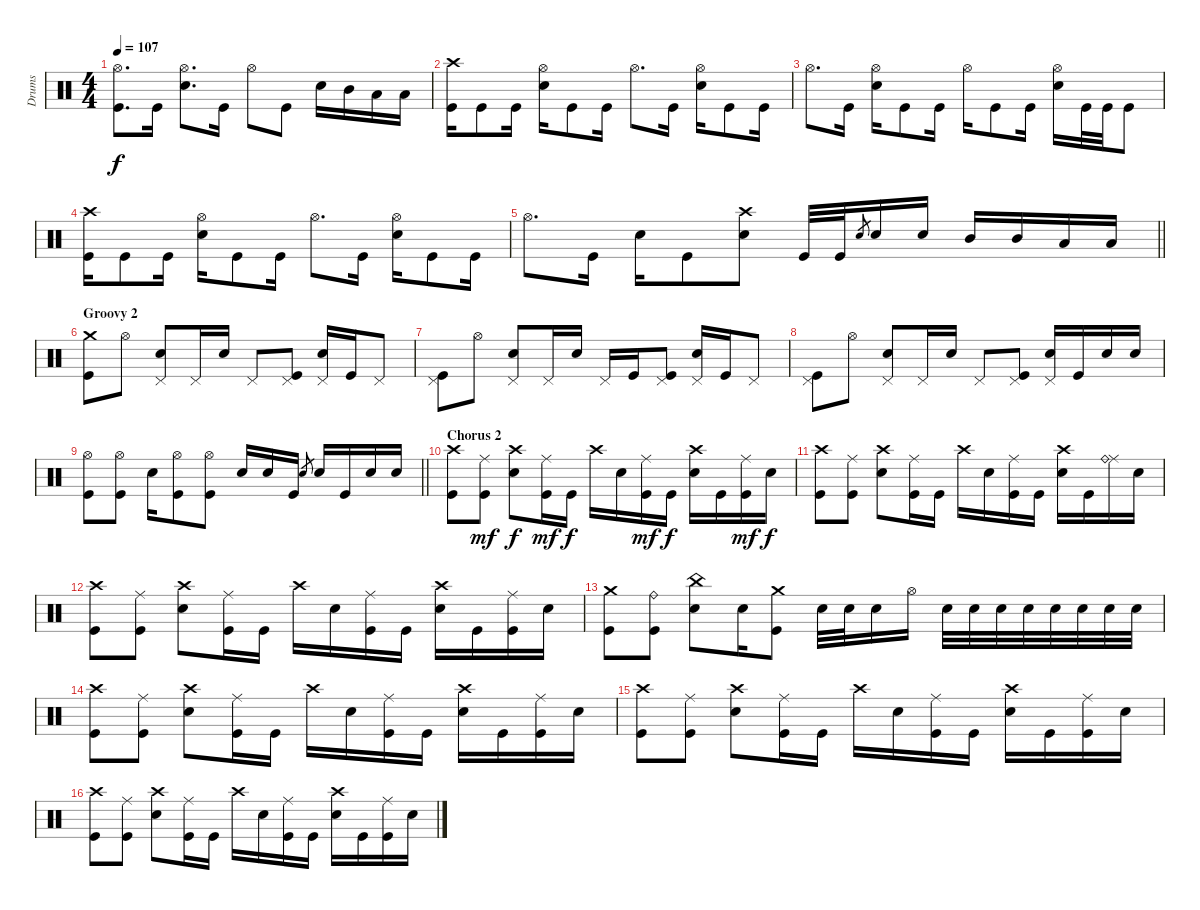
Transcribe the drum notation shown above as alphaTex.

\track ("Drums" "Drums") {instrument percussion}
\staff {score}
\articulation defaults
\ts (4 4)
\tempo 107
\clef neutral
\ks c
("Hi-Hat (open)" "Kick (hit)").8{d dy f} "Kick (hit)".16 ("Hi-Hat (open)" "Snare (hit) 2").8{d} "Kick (hit)".16 "Hi-Hat (open)".8 "Kick (hit)".8 "Snare (hit) 2".16 "Mid Tom (hit)".16 "Low Tom (hit)".16 "Low Tom (hit)".16 |
("Crash high (hit)" "Kick (hit)").16 "Kick (hit)".8 "Kick (hit)".16 ("Hi-Hat (open)" "Snare (hit) 2").16 "Kick (hit)".8 "Kick (hit)".16 "Hi-Hat (open)".8{d} "Kick (hit)".16 ("Hi-Hat (open)" "Snare (hit) 2").16 "Kick (hit)".8 "Kick (hit)".16 |
"Hi-Hat (open)".8{d} "Kick (hit)".16 ("Hi-Hat (open)" "Snare (hit) 2").16 "Kick (hit)".8 "Kick (hit)".16 "Hi-Hat (open)".16 "Kick (hit)".8 "Kick (hit)".16 ("Hi-Hat (open)" "Snare (hit) 2").16 "Kick (hit)".32 "Kick (hit)".32 "Kick (hit)".8 |
("Crash high (hit)" "Kick (hit)").16 "Kick (hit)".8 "Kick (hit)".16 ("Hi-Hat (open)" "Snare (hit) 2").16 "Kick (hit)".8 "Kick (hit)".16 "Hi-Hat (open)".8{d} "Kick (hit)".16 ("Hi-Hat (open)" "Snare (hit) 2").16 "Kick (hit)".8 "Kick (hit)".16 |
\barLineRight lightlight "Hi-Hat (open)".8{d} "Kick (hit)".16 "Snare (hit) 2".16 "Kick (hit)".8
("Crash high (hit)" "Snare (hit) 2").8 "Kick (hit)".32 "Kick (hit)".32 "Snare (hit) 2".8{gr} "Snare (hit) 2".16 "Snare (hit) 2".16 "Mid Tom (hit)".16 "Mid Tom (hit)".16 "Low Tom (hit)".16 "Low Tom (hit)".16 |
\section ("" "Groovy 2")
("Crash medium (hit)" "Kick (hit)").8 "Hi-Hat (open)".8 ("Pedal Hi-Hat (hit)" "Snare (hit) 2").8 "Pedal Hi-Hat (hit)".16 "Snare (hit) 2".16 "Pedal Hi-Hat (hit)".8 ("Pedal Hi-Hat (hit)" "Kick (hit)").8 ("Pedal Hi-Hat (hit)" "Snare (hit) 2").16 "Kick (hit)".16 "Pedal Hi-Hat (hit)".8 |
("Pedal Hi-Hat (hit)" "Kick (hit)").8 "Hi-Hat (open)".8 ("Pedal Hi-Hat (hit)" "Snare (hit) 2").8 "Pedal Hi-Hat (hit)".16 "Snare (hit) 2".16 "Pedal Hi-Hat (hit)".16 "Kick (hit)".16 ("Pedal Hi-Hat (hit)" "Kick (hit)").8 ("Pedal Hi-Hat (hit)" "Snare (hit) 2").16 "Kick (hit)".16 "Pedal Hi-Hat (hit)".8 |
("Pedal Hi-Hat (hit)" "Kick (hit)").8 "Hi-Hat (open)".8 ("Pedal Hi-Hat (hit)" "Snare (hit) 2").8 "Pedal Hi-Hat (hit)".16 "Snare (hit) 2".16 "Pedal Hi-Hat (hit)".8 ("Pedal Hi-Hat (hit)" "Kick (hit)").8 ("Pedal Hi-Hat (hit)" "Snare (hit) 2").16 "Kick (hit)".16 "Snare (hit) 2".16 "Snare (hit) 2".16 |
\barLineRight lightlight
("Hi-Hat (open)" "Kick (hit)").8 ("Hi-Hat (open)" "Kick (hit)").8 "Snare (hit) 2".16 ("Hi-Hat (open)" "Kick (hit)").8 ("Hi-Hat (open)" "Kick (hit)").8 "Snare (hit) 2".16 "Snare (hit) 2".16 "Kick (hit)".16 "Snare (hit) 2".8{gr} "Snare (hit) 2".16 "Kick (hit)".16 "Snare (hit) 2".16 "Snare (hit) 2".16 |
\section ("" "Chorus 2")
("Crash high (hit)" "Kick (hit)").8 ("Ride (middle)" "Kick (hit)").8{dy mf} ("Crash high (hit)" "Snare (hit) 2").8{dy f} ("Ride (middle)" "Kick (hit)").16{dy mf} "Kick (hit)".16{dy f} "Crash high (hit)".16 "Snare (hit) 2".16 ("Ride (middle)" "Kick (hit)").16{dy mf} "Kick (hit)".16{dy f} ("Crash high (hit)" "Snare (hit) 2").16 "Kick (hit)".16 ("Ride (middle)" "Kick (hit)").16{dy mf} "Snare (hit) 2".16{dy f} |
("Crash high (hit)" "Kick (hit)").8 ("Ride (middle)" "Kick (hit)").8 ("Crash high (hit)" "Snare (hit) 2").8 ("Ride (middle)" "Kick (hit)").16 "Kick (hit)".16 "Crash high (hit)".16 "Snare (hit) 2".16 ("Ride (middle)" "Kick (hit)").16 "Kick (hit)".16 ("Crash high (hit)" "Snare (hit) 2").16 "Kick (hit)".16 ("Ride (middle)" "Ride (bell)").16 "Snare (hit) 2".16 |
("Crash high (hit)" "Kick (hit)").8 ("Ride (middle)" "Kick (hit)").8 ("Crash high (hit)" "Snare (hit) 2").8 ("Ride (middle)" "Kick (hit)").16 "Kick (hit)".16 "Crash high (hit)".16 "Snare (hit) 2".16 ("Ride (middle)" "Kick (hit)").16 "Kick (hit)".16 ("Crash high (hit)" "Snare (hit) 2").16 "Kick (hit)".16 ("Ride (middle)" "Kick (hit)").16 "Snare (hit) 2".16 |
("Crash medium (hit)" "Kick (hit)").8 ("Ride (bell)" "Kick (hit)").8 ("China (hit)" "Snare (hit) 2").8 "Snare (hit) 2".16 ("Crash medium (hit)" "Kick (hit)").8 "Snare (hit) 2".32 "Snare (hit) 2".32 "Snare (hit) 2".16 "Hi-Hat (open)".16 "Snare (hit) 2".32 "Snare (hit) 2".32 "Snare (hit) 2".32 "Snare (hit) 2".32 "Snare (hit) 2".32 "Snare (hit) 2".32 "Snare (hit) 2".32 "Snare (hit) 2".32 |
("Crash high (hit)" "Kick (hit)").8 ("Ride (middle)" "Kick (hit)").8 ("Crash high (hit)" "Snare (hit) 2").8 ("Ride (middle)" "Kick (hit)").16 "Kick (hit)".16 "Crash high (hit)".16 "Snare (hit) 2".16 ("Ride (middle)" "Kick (hit)").16 "Kick (hit)".16 ("Crash high (hit)" "Snare (hit) 2").16 "Kick (hit)".16 ("Ride (middle)" "Kick (hit)").16 "Snare (hit) 2".16 |
("Crash high (hit)" "Kick (hit)").8 ("Ride (middle)" "Kick (hit)").8 ("Crash high (hit)" "Snare (hit) 2").8 ("Ride (middle)" "Kick (hit)").16 "Kick (hit)".16 "Crash high (hit)".16 "Snare (hit) 2".16 ("Ride (middle)" "Kick (hit)").16 "Kick (hit)".16 ("Crash high (hit)" "Snare (hit) 2").16 "Kick (hit)".16 ("Ride (middle)" "Kick (hit)").16 "Snare (hit) 2".16 |
("Crash high (hit)" "Kick (hit)").8 ("Ride (middle)" "Kick (hit)").8 ("Crash high (hit)" "Snare (hit) 2").8 ("Ride (middle)" "Kick (hit)").16 "Kick (hit)".16 "Crash high (hit)".16 "Snare (hit) 2".16 ("Ride (middle)" "Kick (hit)").16 "Kick (hit)".16 ("Crash high (hit)" "Snare (hit) 2").16 "Kick (hit)".16 ("Ride (middle)" "Kick (hit)").16 "Snare (hit) 2".16
